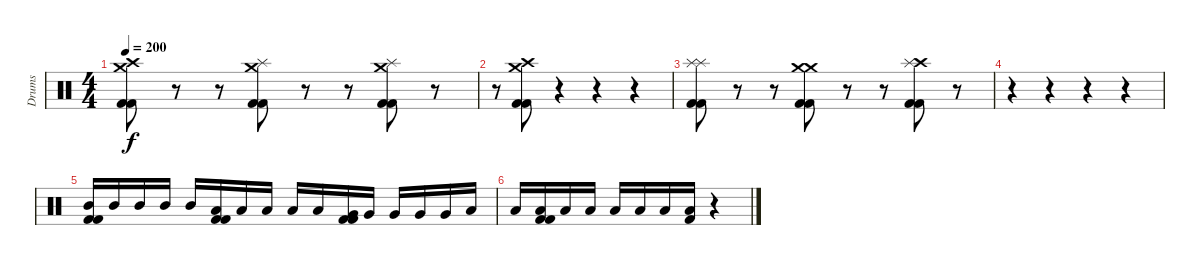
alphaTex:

\track ("Drums" "Drums") {instrument percussion}
\staff {score}
\articulation defaults
\ts (4 4)
\tempo 200
\clef neutral
\ks c
("Crash high (hit)" "Crash medium (hit)" "Kick (hit) 2" "Kick (hit) 2").8{dy f} r.8 r.8 ("Crash medium (hit)" "Splash (hit)" "Kick (hit) 2" "Kick (hit) 2").8 r.8 r.8 ("Crash medium (hit)" "Splash (hit)" "Kick (hit) 2" "Kick (hit) 2").8 r.8 |
r.8 ("Crash high (hit)" "Crash medium (hit)" "Kick (hit) 2" "Kick (hit) 2").8 r.4 r.4 r.4 |
("Splash (hit)" "Splash (hit)" "Kick (hit) 2" "Kick (hit) 2").8 r.8 r.8 ("Crash medium (hit)" "Crash medium (hit)" "Kick (hit) 2" "Kick (hit) 2").8 r.8 r.8 ("Crash high (hit)" "Splash (hit)" "Kick (hit) 2" "Kick (hit) 2").8 r.8 |
r.4 r.4 r.4 r.4 |
("Mid Tom (hit)" "Kick (hit) 2" "Kick (hit) 2").16 "Mid Tom (hit)".16 "Mid Tom (hit)".16 "Mid Tom (hit)".16 "Mid Tom (hit)".16 ("Low Tom (hit)" "Kick (hit) 2" "Kick (hit) 2").16 "Low Tom (hit)".16 "Low Tom (hit)".16 "Low Tom (hit)".16 "Low Tom (hit)".16 ("Very Low Tom (hit)" "Kick (hit) 2" "Kick (hit) 2").16 "Very Low Tom (hit)".16 "Very Low Tom (hit)".16 "Very Low Tom (hit)".16 "Very Low Tom (hit)".16 "Low Floor Tom (hit)".16 |
"Low Floor Tom (hit)".16 ("Low Floor Tom (hit)" "Kick (hit) 2" "Kick (hit) 2").16 "Low Floor Tom (hit)".16 "Low Floor Tom (hit)".16 "Low Floor Tom (hit)".16 "Low Floor Tom (hit)".16 "Low Floor Tom (hit)".16 ("Low Floor Tom (hit)" "Kick (hit) 2").16 r.4
